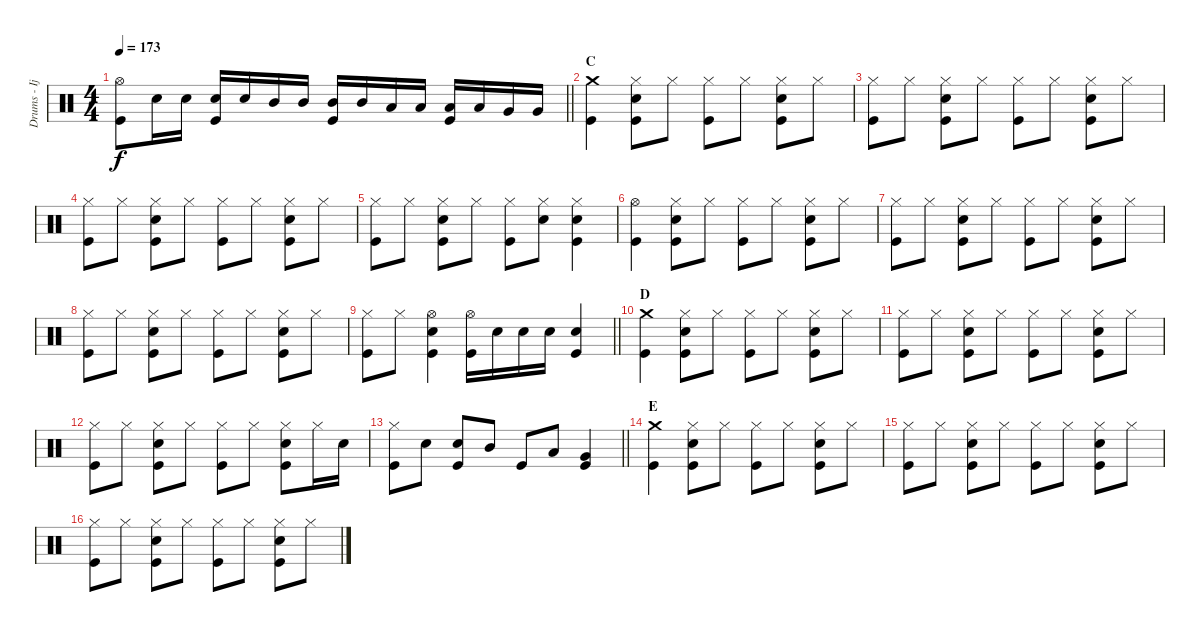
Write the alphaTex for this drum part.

\track ("Drums - Ijichi" "Drums - Ij") {instrument percussion}
\staff {score}
\articulation defaults
\ts (4 4)
\tempo 173
\clef neutral
\barLineRight lightlight
\ks c
("Hi-Hat (open)" "Kick (hit)").8{dy f} "Electric Snare (hit)".16 "Electric Snare (hit)".16 ("Electric Snare (hit)" "Kick (hit)").16 "Electric Snare (hit)".16 "Mid Tom (hit)".16 "Mid Tom (hit)".16 ("Mid Tom (hit)" "Kick (hit)").16 "Mid Tom (hit)".16 "Low Tom (hit)".16 "Low Tom (hit)".16 ("Low Tom (hit)" "Kick (hit)").16 "Low Tom (hit)".16 "Very Low Tom (hit)".16 "Very Low Tom (hit)".16 |
\section ("" "C")
("Crash medium (hit)" "Kick (hit)").4 ("Hi-Hat (closed)" "Electric Snare (hit)" "Kick (hit)").8 "Hi-Hat (closed)".8 ("Hi-Hat (closed)" "Kick (hit)").8 "Hi-Hat (closed)".8 ("Hi-Hat (closed)" "Electric Snare (hit)" "Kick (hit)").8 "Hi-Hat (closed)".8 |
("Hi-Hat (closed)" "Kick (hit)").8 "Hi-Hat (closed)".8 ("Hi-Hat (closed)" "Electric Snare (hit)" "Kick (hit)").8 "Hi-Hat (closed)".8 ("Hi-Hat (closed)" "Kick (hit)").8 "Hi-Hat (closed)".8 ("Hi-Hat (closed)" "Electric Snare (hit)" "Kick (hit)").8 "Hi-Hat (closed)".8 |
("Hi-Hat (closed)" "Kick (hit)").8 "Hi-Hat (closed)".8 ("Hi-Hat (closed)" "Electric Snare (hit)" "Kick (hit)").8 "Hi-Hat (closed)".8 ("Hi-Hat (closed)" "Kick (hit)").8 "Hi-Hat (closed)".8 ("Hi-Hat (closed)" "Electric Snare (hit)" "Kick (hit)").8 "Hi-Hat (closed)".8 |
("Hi-Hat (closed)" "Kick (hit)").8 "Hi-Hat (closed)".8 ("Hi-Hat (closed)" "Electric Snare (hit)" "Kick (hit)").8 "Hi-Hat (closed)".8 ("Hi-Hat (closed)" "Kick (hit)").8 ("Hi-Hat (closed)" "Electric Snare (hit)").8 ("Hi-Hat (closed)" "Electric Snare (hit)" "Kick (hit)").4 |
("Hi-Hat (open)" "Kick (hit)").4 ("Hi-Hat (closed)" "Electric Snare (hit)" "Kick (hit)").8 "Hi-Hat (closed)".8 ("Hi-Hat (closed)" "Kick (hit)").8 "Hi-Hat (closed)".8 ("Hi-Hat (closed)" "Electric Snare (hit)" "Kick (hit)").8 "Hi-Hat (closed)".8 |
("Hi-Hat (closed)" "Kick (hit)").8 "Hi-Hat (closed)".8 ("Hi-Hat (closed)" "Electric Snare (hit)" "Kick (hit)").8 "Hi-Hat (closed)".8 ("Hi-Hat (closed)" "Kick (hit)").8 "Hi-Hat (closed)".8 ("Hi-Hat (closed)" "Electric Snare (hit)" "Kick (hit)").8 "Hi-Hat (closed)".8 |
("Hi-Hat (closed)" "Kick (hit)").8 "Hi-Hat (closed)".8 ("Hi-Hat (closed)" "Electric Snare (hit)" "Kick (hit)").8 "Hi-Hat (closed)".8 ("Hi-Hat (closed)" "Kick (hit)").8 "Hi-Hat (closed)".8 ("Hi-Hat (closed)" "Electric Snare (hit)" "Kick (hit)").8 "Hi-Hat (closed)".8 |
\barLineRight lightlight
("Hi-Hat (closed)" "Kick (hit)").8 "Hi-Hat (closed)".8 ("Hi-Hat (open)" "Electric Snare (hit)" "Kick (hit)").4 ("Hi-Hat (open)" "Kick (hit)").16 "Electric Snare (hit)".16 "Electric Snare (hit)".16 "Electric Snare (hit)".16 ("Electric Snare (hit)" "Kick (hit)").4 |
\section ("" "D")
("Crash medium (hit)" "Kick (hit)").4 ("Hi-Hat (closed)" "Electric Snare (hit)" "Kick (hit)").8 "Hi-Hat (closed)".8 ("Hi-Hat (closed)" "Kick (hit)").8 "Hi-Hat (closed)".8 ("Hi-Hat (closed)" "Electric Snare (hit)" "Kick (hit)").8 "Hi-Hat (closed)".8 |
("Hi-Hat (closed)" "Kick (hit)").8 "Hi-Hat (closed)".8 ("Hi-Hat (closed)" "Electric Snare (hit)" "Kick (hit)").8 "Hi-Hat (closed)".8 ("Hi-Hat (closed)" "Kick (hit)").8 "Hi-Hat (closed)".8 ("Hi-Hat (closed)" "Electric Snare (hit)" "Kick (hit)").8 "Hi-Hat (closed)".8 |
("Hi-Hat (closed)" "Kick (hit)").8 "Hi-Hat (closed)".8 ("Hi-Hat (closed)" "Electric Snare (hit)" "Kick (hit)").8 "Hi-Hat (closed)".8 ("Hi-Hat (closed)" "Kick (hit)").8 "Hi-Hat (closed)".8 ("Hi-Hat (closed)" "Electric Snare (hit)" "Kick (hit)").8 "Hi-Hat (closed)".16 "Electric Snare (hit)".16 |
\barLineRight lightlight
("Hi-Hat (closed)" "Kick (hit)").8 "Electric Snare (hit)".8 ("Electric Snare (hit)" "Kick (hit)").8 "Mid Tom (hit)".8 "Kick (hit)".8 "Low Tom (hit)".8 ("Very Low Tom (hit)" "Kick (hit)").4 |
\section ("" "E")
("Crash medium (hit)" "Kick (hit)").4 ("Hi-Hat (closed)" "Electric Snare (hit)" "Kick (hit)").8 "Hi-Hat (closed)".8 ("Hi-Hat (closed)" "Kick (hit)").8 "Hi-Hat (closed)".8 ("Hi-Hat (closed)" "Electric Snare (hit)" "Kick (hit)").8 "Hi-Hat (closed)".8 |
("Hi-Hat (closed)" "Kick (hit)").8 "Hi-Hat (closed)".8 ("Hi-Hat (closed)" "Electric Snare (hit)" "Kick (hit)").8 "Hi-Hat (closed)".8 ("Hi-Hat (closed)" "Kick (hit)").8 "Hi-Hat (closed)".8 ("Hi-Hat (closed)" "Electric Snare (hit)" "Kick (hit)").8 "Hi-Hat (closed)".8 |
("Hi-Hat (closed)" "Kick (hit)").8 "Hi-Hat (closed)".8 ("Hi-Hat (closed)" "Electric Snare (hit)" "Kick (hit)").8 "Hi-Hat (closed)".8 ("Hi-Hat (closed)" "Kick (hit)").8 "Hi-Hat (closed)".8 ("Hi-Hat (closed)" "Electric Snare (hit)" "Kick (hit)").8 "Hi-Hat (closed)".8
